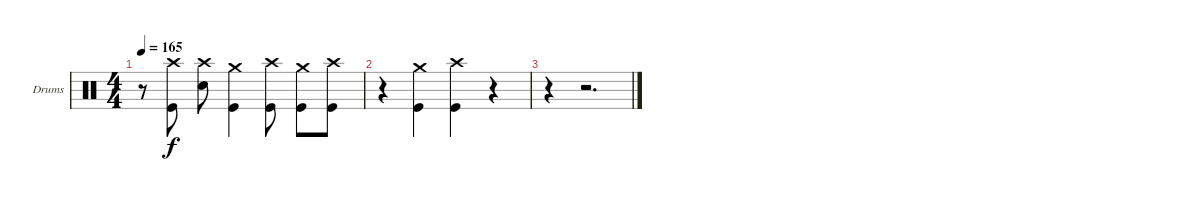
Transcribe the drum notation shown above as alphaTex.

\bracketExtendMode groupsimilarinstruments
\firstSystemTrackNameOrientation horizontal
\otherSystemsTrackNameOrientation horizontal
\track ("Drumkit Midi" "Drums") {instrument percussion}
\staff {score}
\articulation defaults
\ts (4 4)
\tempo 165
\clef neutral
\ks c
r.8{dy f} ("Kick (hit)" "Crash high (hit)").8 ("Snare (hit) 2" "Crash high (hit)").8 ("Kick (hit)" "Crash medium (hit)").4 ("Kick (hit)" "Crash high (hit)").8 ("Kick (hit)" "Crash medium (hit)").8 ("Kick (hit)" "Crash high (hit)").8 |
r.4 ("Kick (hit)" "Crash medium (hit)").4 ("Kick (hit)" "Crash high (hit)").4 r.4 |
r.4 r.2{d}
